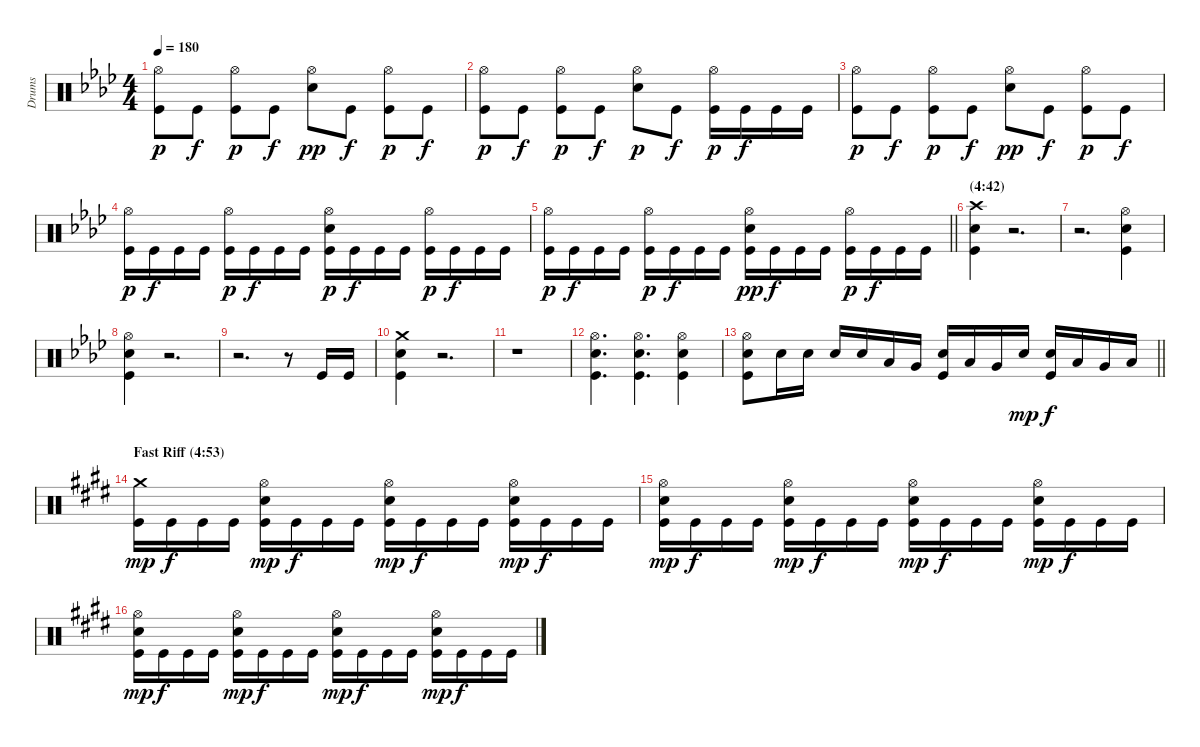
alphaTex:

\track ("Drums" "Drums") {instrument percussion}
\staff {score}
\articulation defaults
\ts (4 4)
\tempo 180
\clef neutral
\ks fminor
("Hi-Hat (open)" "Kick (hit)").8{dy p} "Kick (hit)".8{dy f} ("Hi-Hat (open)" "Kick (hit)").8{dy p} "Kick (hit)".8{dy f} ("Hi-Hat (open)" "Snare (hit) 2").8{dy pp} "Kick (hit)".8{dy f} ("Hi-Hat (open)" "Kick (hit)").8{dy p} "Kick (hit)".8{dy f} |
("Hi-Hat (open)" "Kick (hit)").8{dy p} "Kick (hit)".8{dy f} ("Hi-Hat (open)" "Kick (hit)").8{dy p} "Kick (hit)".8{dy f} ("Hi-Hat (open)" "Snare (hit) 2").8{dy p} "Kick (hit)".8{dy f} ("Hi-Hat (open)" "Kick (hit)").16{dy p} "Kick (hit)".16{dy f} "Kick (hit)".16 "Kick (hit)".16 |
("Hi-Hat (open)" "Kick (hit)").8{dy p} "Kick (hit)".8{dy f} ("Hi-Hat (open)" "Kick (hit)").8{dy p} "Kick (hit)".8{dy f} ("Hi-Hat (open)" "Snare (hit) 2").8{dy pp} "Kick (hit)".8{dy f} ("Hi-Hat (open)" "Kick (hit)").8{dy p} "Kick (hit)".8{dy f} |
("Hi-Hat (open)" "Kick (hit)").16{dy p} "Kick (hit)".16{dy f} "Kick (hit)".16 "Kick (hit)".16 ("Hi-Hat (open)" "Kick (hit)").16{dy p} "Kick (hit)".16{dy f} "Kick (hit)".16 "Kick (hit)".16 ("Hi-Hat (open)" "Snare (hit) 2" "Kick (hit)").16{dy p} "Kick (hit)".16{dy f} "Kick (hit)".16 "Kick (hit)".16 ("Hi-Hat (open)" "Kick (hit)").16{dy p} "Kick (hit)".16{dy f} "Kick (hit)".16 "Kick (hit)".16 |
\barLineRight lightlight
("Hi-Hat (open)" "Kick (hit)").16{dy p} "Kick (hit)".16{dy f} "Kick (hit)".16 "Kick (hit)".16 ("Hi-Hat (open)" "Kick (hit)").16{dy p} "Kick (hit)".16{dy f} "Kick (hit)".16 "Kick (hit)".16 ("Hi-Hat (open)" "Snare (hit) 2" "Kick (hit)").16{dy pp} "Kick (hit)".16{dy f} "Kick (hit)".16 "Kick (hit)".16 ("Hi-Hat (open)" "Kick (hit)").16{dy p} "Kick (hit)".16{dy f} "Kick (hit)".16 "Kick (hit)".16 |
\section ("" "(4:42)")
("Crash high (hit)" "Snare (hit) 2" "Kick (hit)").4 r.2{d} |
r.2{d} ("Hi-Hat (open)" "Snare (hit) 2" "Kick (hit)").4 |
("Hi-Hat (open)" "Snare (hit) 2" "Kick (hit)").4 r.2{d} |
r.2{d} r.8 "Kick (hit)".16 "Kick (hit)".16 |
("Crash medium (hit)" "Snare (hit) 2" "Kick (hit)").4 r.2{d} |
r.1 |
("Hi-Hat (open)" "Snare (hit) 2" "Kick (hit)").4{d} ("Hi-Hat (open)" "Snare (hit) 2" "Kick (hit)").4{d} ("Hi-Hat (open)" "Snare (hit) 2" "Kick (hit)").4 |
\barLineRight lightlight
("Hi-Hat (open)" "Snare (hit) 2" "Kick (hit)").8 "Snare (hit) 2".16 "Snare (hit) 2".16 "Snare (hit) 2".16 "Snare (hit) 2".16 "Low Tom (hit)".16 "Very Low Tom (hit)".16 ("Snare (hit) 2" "Kick (hit)").16 "Low Tom (hit)".16 "Very Low Tom (hit)".16 "Snare (hit) 2".16{dy mp} ("Snare (hit) 2" "Kick (hit)").16{dy f} "Low Tom (hit)".16 "Very Low Tom (hit)".16 "Low Floor Tom (hit)".16 |
\section ("" "Fast Riff (4:53)")
\ks c#minor
("Crash medium (hit)" "Kick (hit)").16{dy mp} "Kick (hit)".16{dy f} "Kick (hit)".16 "Kick (hit)".16 ("Hi-Hat (open)" "Snare (hit) 2" "Kick (hit)").16{dy mp} "Kick (hit)".16{dy f} "Kick (hit)".16 "Kick (hit)".16 ("Hi-Hat (open)" "Snare (hit) 2" "Kick (hit)").16{dy mp} "Kick (hit)".16{dy f} "Kick (hit)".16 "Kick (hit)".16 ("Hi-Hat (open)" "Snare (hit) 2" "Kick (hit)").16{dy mp} "Kick (hit)".16{dy f} "Kick (hit)".16 "Kick (hit)".16 |
("Hi-Hat (open)" "Snare (hit) 2" "Kick (hit)").16{dy mp} "Kick (hit)".16{dy f} "Kick (hit)".16 "Kick (hit)".16 ("Hi-Hat (open)" "Snare (hit) 2" "Kick (hit)").16{dy mp} "Kick (hit)".16{dy f} "Kick (hit)".16 "Kick (hit)".16 ("Hi-Hat (open)" "Snare (hit) 2" "Kick (hit)").16{dy mp} "Kick (hit)".16{dy f} "Kick (hit)".16 "Kick (hit)".16 ("Hi-Hat (open)" "Snare (hit) 2" "Kick (hit)").16{dy mp} "Kick (hit)".16{dy f} "Kick (hit)".16 "Kick (hit)".16 |
("Hi-Hat (open)" "Snare (hit) 2" "Kick (hit)").16{dy mp} "Kick (hit)".16{dy f} "Kick (hit)".16 "Kick (hit)".16 ("Hi-Hat (open)" "Snare (hit) 2" "Kick (hit)").16{dy mp} "Kick (hit)".16{dy f} "Kick (hit)".16 "Kick (hit)".16 ("Hi-Hat (open)" "Snare (hit) 2" "Kick (hit)").16{dy mp} "Kick (hit)".16{dy f} "Kick (hit)".16 "Kick (hit)".16 ("Hi-Hat (open)" "Snare (hit) 2" "Kick (hit)").16{dy mp} "Kick (hit)".16{dy f} "Kick (hit)".16 "Kick (hit)".16
